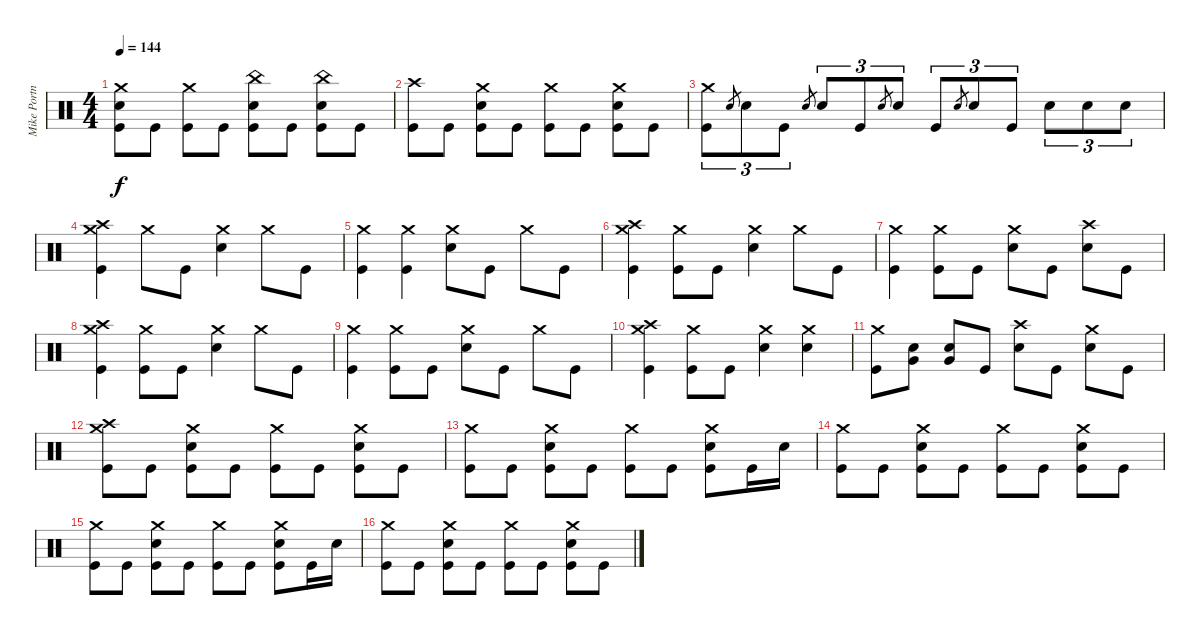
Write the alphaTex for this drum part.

\track ("Mike Portnoy" "Mike Portn") {instrument percussion}
\staff {score}
\articulation defaults
\ts (4 4)
\tempo 144
\clef neutral
\ks c
("Crash medium (hit)" "Electric Snare (hit)" "Kick (hit)").8{dy f} "Kick (hit)".8 ("Crash medium (hit)" "Kick (hit)").8 "Kick (hit)".8 ("China (hit)" "Electric Snare (hit)" "Kick (hit)").8 "Kick (hit)".8 ("China (hit)" "Electric Snare (hit)" "Kick (hit)").8 "Kick (hit)".8 |
("Crash high (hit)" "Kick (hit)").8 "Kick (hit)".8 ("Crash medium (hit)" "Electric Snare (hit)" "Kick (hit)").8 "Kick (hit)".8 ("Crash medium (hit)" "Kick (hit)").8 "Kick (hit)".8 ("Crash medium (hit)" "Electric Snare (hit)" "Kick (hit)").8 "Kick (hit)".8 |
("Crash medium (hit)" "Kick (hit)").8{tu (3 2)} "Electric Snare (hit)".8{gr} "Electric Snare (hit)".8{tu (3 2)} "Kick (hit)".8{tu (3 2)} "Electric Snare (hit)".8{gr} "Electric Snare (hit)".8{tu (3 2)} "Kick (hit)".8{tu (3 2)} "Electric Snare (hit)".8{gr} "Electric Snare (hit)".8{tu (3 2)} "Kick (hit)".8{tu (3 2)} "Electric Snare (hit)".8{gr} "Electric Snare (hit)".8{tu (3 2)} "Kick (hit)".8{tu (3 2)} "Electric Snare (hit)".8{tu (3 2)} "Electric Snare (hit)".8{tu (3 2)} "Electric Snare (hit)".8{tu (3 2)} |
("Crash high (hit)" "Crash medium (hit)" "Kick (hit)").4 "Crash medium (hit)".8 "Kick (hit)".8 ("Crash medium (hit)" "Electric Snare (hit)").4 "Crash medium (hit)".8 "Kick (hit)".8 |
("Crash medium (hit)" "Kick (hit)").4 ("Crash medium (hit)" "Kick (hit)").4 ("Crash medium (hit)" "Electric Snare (hit)").8 "Kick (hit)".8 "Crash medium (hit)".8 "Kick (hit)".8 |
("Crash high (hit)" "Crash medium (hit)" "Kick (hit)").4 ("Crash medium (hit)" "Kick (hit)").8 "Kick (hit)".8 ("Crash medium (hit)" "Electric Snare (hit)").4 "Crash medium (hit)".8 "Kick (hit)".8 |
("Crash medium (hit)" "Kick (hit)").4 ("Crash medium (hit)" "Kick (hit)").8 "Kick (hit)".8 ("Crash medium (hit)" "Electric Snare (hit)").8 "Kick (hit)".8 ("Crash high (hit)" "Electric Snare (hit)").8 "Kick (hit)".8 |
("Crash high (hit)" "Crash medium (hit)" "Kick (hit)").4 ("Crash medium (hit)" "Kick (hit)").8 "Kick (hit)".8 ("Crash medium (hit)" "Electric Snare (hit)").4 "Crash medium (hit)".8 "Kick (hit)".8 |
("Crash medium (hit)" "Kick (hit)").4 ("Crash medium (hit)" "Kick (hit)").8 "Kick (hit)".8 ("Crash medium (hit)" "Electric Snare (hit)").8 "Kick (hit)".8 "Crash medium (hit)".8 "Kick (hit)".8 |
("Crash high (hit)" "Crash medium (hit)" "Kick (hit)").4 ("Crash medium (hit)" "Kick (hit)").8 "Kick (hit)".8 ("Crash medium (hit)" "Electric Snare (hit)").4 ("Crash medium (hit)" "Electric Snare (hit)").4 |
("Crash medium (hit)" "Kick (hit)").8 ("Very Low Tom (hit)" "Electric Snare (hit)").8 ("Very Low Tom (hit)" "Electric Snare (hit)").8 "Kick (hit)".8 ("Crash high (hit)" "Electric Snare (hit)").8 "Kick (hit)".8 ("Crash medium (hit)" "Electric Snare (hit)").8 "Kick (hit)".8 |
("Crash medium (hit)" "Crash high (hit)" "Kick (hit)").8 "Kick (hit)".8 ("Crash medium (hit)" "Electric Snare (hit)" "Kick (hit)").8 "Kick (hit)".8 ("Crash medium (hit)" "Kick (hit)").8 "Kick (hit)".8 ("Crash medium (hit)" "Electric Snare (hit)" "Kick (hit)").8 "Kick (hit)".8 |
("Crash medium (hit)" "Kick (hit)").8 "Kick (hit)".8 ("Crash medium (hit)" "Electric Snare (hit)" "Kick (hit)").8 "Kick (hit)".8 ("Crash medium (hit)" "Kick (hit)").8 "Kick (hit)".8 ("Crash medium (hit)" "Electric Snare (hit)" "Kick (hit)").8 "Kick (hit)".16 "Electric Snare (hit)".16 |
("Crash medium (hit)" "Kick (hit)").8 "Kick (hit)".8 ("Crash medium (hit)" "Electric Snare (hit)" "Kick (hit)").8 "Kick (hit)".8 ("Crash medium (hit)" "Kick (hit)").8 "Kick (hit)".8 ("Crash medium (hit)" "Electric Snare (hit)" "Kick (hit)").8 "Kick (hit)".8 |
("Crash medium (hit)" "Kick (hit)").8 "Kick (hit)".8 ("Crash medium (hit)" "Electric Snare (hit)" "Kick (hit)").8 "Kick (hit)".8 ("Crash medium (hit)" "Kick (hit)").8 "Kick (hit)".8 ("Crash medium (hit)" "Electric Snare (hit)" "Kick (hit)").8 "Kick (hit)".16 "Electric Snare (hit)".16 |
("Crash medium (hit)" "Kick (hit)").8 "Kick (hit)".8 ("Crash medium (hit)" "Electric Snare (hit)" "Kick (hit)").8 "Kick (hit)".8 ("Crash medium (hit)" "Kick (hit)").8 "Kick (hit)".8 ("Crash medium (hit)" "Electric Snare (hit)" "Kick (hit)").8 "Kick (hit)".8
